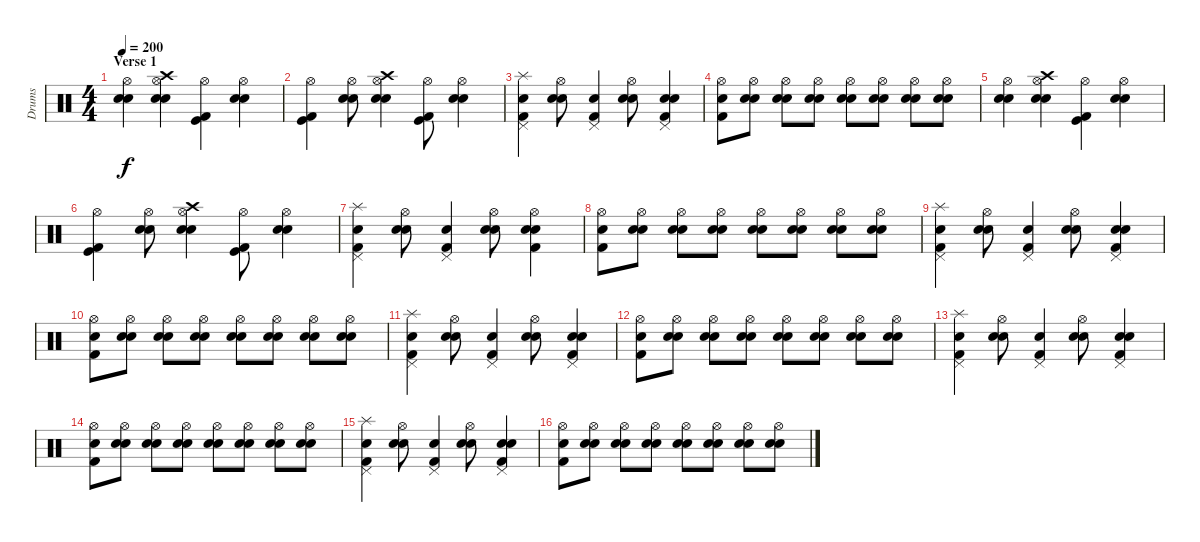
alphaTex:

\track ("Drums" "Drums") {instrument percussion}
\staff {score}
\articulation defaults
\ts (4 4)
\section ("" "Verse 1")
\tempo 200
\clef neutral
\ks c
("Hi-Hat (open)" "Snare (hit) 2" "Electric Snare (hit)").4{dy f} ("Hi-Hat (open)" "Crash high (hit)" "Snare (hit) 2" "Electric Snare (hit)").4 ("Hi-Hat (open)" "Kick (hit)" "Kick (hit) 2").4 ("Hi-Hat (open)" "Snare (hit) 2" "Electric Snare (hit)").4 |
("Hi-Hat (open)" "Kick (hit)" "Kick (hit) 2").4 ("Hi-Hat (open)" "Snare (hit) 2" "Electric Snare (hit)").8 ("Hi-Hat (open)" "Crash high (hit)" "Snare (hit) 2" "Electric Snare (hit)").4 ("Hi-Hat (open)" "Kick (hit)" "Kick (hit) 2").8 ("Hi-Hat (open)" "Snare (hit) 2" "Electric Snare (hit)").4 |
("Pedal Hi-Hat (hit)" "Splash (hit)" "Snare (hit) 2" "Kick (hit) 2").4 ("Hi-Hat (open)" "Snare (hit) 2" "Electric Snare (hit)").8 ("Pedal Hi-Hat (hit)" "Snare (hit) 2" "Kick (hit) 2").4 ("Hi-Hat (open)" "Snare (hit) 2" "Electric Snare (hit)").8 ("Pedal Hi-Hat (hit)" "Snare (hit) 2" "Electric Snare (hit)" "Kick (hit) 2").4 |
("Hi-Hat (open)" "Snare (hit) 2" "Kick (hit) 2").8 ("Hi-Hat (open)" "Snare (hit) 2" "Electric Snare (hit)").8 ("Hi-Hat (open)" "Snare (hit) 2" "Electric Snare (hit)").8 ("Hi-Hat (open)" "Snare (hit) 2" "Electric Snare (hit)").8 ("Hi-Hat (open)" "Snare (hit) 2" "Electric Snare (hit)").8 ("Hi-Hat (open)" "Snare (hit) 2" "Electric Snare (hit)").8 ("Hi-Hat (open)" "Snare (hit) 2" "Electric Snare (hit)").8 ("Hi-Hat (open)" "Snare (hit) 2" "Electric Snare (hit)").8 |
("Hi-Hat (open)" "Snare (hit) 2" "Electric Snare (hit)").4 ("Hi-Hat (open)" "Crash high (hit)" "Snare (hit) 2" "Electric Snare (hit)").4 ("Hi-Hat (open)" "Kick (hit)" "Kick (hit) 2").4 ("Hi-Hat (open)" "Snare (hit) 2" "Electric Snare (hit)").4 |
("Hi-Hat (open)" "Kick (hit)" "Kick (hit) 2").4 ("Hi-Hat (open)" "Snare (hit) 2" "Electric Snare (hit)").8 ("Hi-Hat (open)" "Crash high (hit)" "Snare (hit) 2" "Electric Snare (hit)").4 ("Hi-Hat (open)" "Kick (hit)" "Kick (hit) 2").8 ("Hi-Hat (open)" "Snare (hit) 2" "Electric Snare (hit)").4 |
("Pedal Hi-Hat (hit)" "Splash (hit)" "Snare (hit) 2" "Kick (hit) 2").4 ("Hi-Hat (open)" "Snare (hit) 2" "Electric Snare (hit)").8 ("Pedal Hi-Hat (hit)" "Snare (hit) 2" "Kick (hit) 2").4 ("Hi-Hat (open)" "Snare (hit) 2" "Electric Snare (hit)").8 ("Hi-Hat (open)" "Snare (hit) 2" "Electric Snare (hit)" "Kick (hit) 2").4 |
("Hi-Hat (open)" "Snare (hit) 2" "Kick (hit) 2").8 ("Hi-Hat (open)" "Snare (hit) 2" "Electric Snare (hit)").8 ("Hi-Hat (open)" "Snare (hit) 2" "Electric Snare (hit)").8 ("Hi-Hat (open)" "Snare (hit) 2" "Electric Snare (hit)").8 ("Hi-Hat (open)" "Snare (hit) 2" "Electric Snare (hit)").8 ("Hi-Hat (open)" "Snare (hit) 2" "Electric Snare (hit)").8 ("Hi-Hat (open)" "Snare (hit) 2" "Electric Snare (hit)").8 ("Hi-Hat (open)" "Snare (hit) 2" "Electric Snare (hit)").8 |
("Pedal Hi-Hat (hit)" "Splash (hit)" "Snare (hit) 2" "Kick (hit) 2").4 ("Hi-Hat (open)" "Snare (hit) 2" "Electric Snare (hit)").8 ("Pedal Hi-Hat (hit)" "Snare (hit) 2" "Kick (hit) 2").4 ("Hi-Hat (open)" "Snare (hit) 2" "Electric Snare (hit)").8 ("Pedal Hi-Hat (hit)" "Snare (hit) 2" "Electric Snare (hit)" "Kick (hit) 2").4 |
("Hi-Hat (open)" "Snare (hit) 2" "Kick (hit) 2").8 ("Hi-Hat (open)" "Snare (hit) 2" "Electric Snare (hit)").8 ("Hi-Hat (open)" "Snare (hit) 2" "Electric Snare (hit)").8 ("Hi-Hat (open)" "Snare (hit) 2" "Electric Snare (hit)").8 ("Hi-Hat (open)" "Snare (hit) 2" "Electric Snare (hit)").8 ("Hi-Hat (open)" "Snare (hit) 2" "Electric Snare (hit)").8 ("Hi-Hat (open)" "Snare (hit) 2" "Electric Snare (hit)").8 ("Hi-Hat (open)" "Snare (hit) 2" "Electric Snare (hit)").8 |
("Pedal Hi-Hat (hit)" "Splash (hit)" "Snare (hit) 2" "Kick (hit) 2").4 ("Hi-Hat (open)" "Snare (hit) 2" "Electric Snare (hit)").8 ("Pedal Hi-Hat (hit)" "Snare (hit) 2" "Kick (hit) 2").4 ("Hi-Hat (open)" "Snare (hit) 2" "Electric Snare (hit)").8 ("Pedal Hi-Hat (hit)" "Snare (hit) 2" "Electric Snare (hit)" "Kick (hit) 2").4 |
("Hi-Hat (open)" "Snare (hit) 2" "Kick (hit) 2").8 ("Hi-Hat (open)" "Snare (hit) 2" "Electric Snare (hit)").8 ("Hi-Hat (open)" "Snare (hit) 2" "Electric Snare (hit)").8 ("Hi-Hat (open)" "Snare (hit) 2" "Electric Snare (hit)").8 ("Hi-Hat (open)" "Snare (hit) 2" "Electric Snare (hit)").8 ("Hi-Hat (open)" "Snare (hit) 2" "Electric Snare (hit)").8 ("Hi-Hat (open)" "Snare (hit) 2" "Electric Snare (hit)").8 ("Hi-Hat (open)" "Snare (hit) 2" "Electric Snare (hit)").8 |
("Pedal Hi-Hat (hit)" "Splash (hit)" "Snare (hit) 2" "Kick (hit) 2").4 ("Hi-Hat (open)" "Snare (hit) 2" "Electric Snare (hit)").8 ("Pedal Hi-Hat (hit)" "Snare (hit) 2" "Kick (hit) 2").4 ("Hi-Hat (open)" "Snare (hit) 2" "Electric Snare (hit)").8 ("Pedal Hi-Hat (hit)" "Snare (hit) 2" "Electric Snare (hit)" "Kick (hit) 2").4 |
("Hi-Hat (open)" "Snare (hit) 2" "Kick (hit) 2").8 ("Hi-Hat (open)" "Snare (hit) 2" "Electric Snare (hit)").8 ("Hi-Hat (open)" "Snare (hit) 2" "Electric Snare (hit)").8 ("Hi-Hat (open)" "Snare (hit) 2" "Electric Snare (hit)").8 ("Hi-Hat (open)" "Snare (hit) 2" "Electric Snare (hit)").8 ("Hi-Hat (open)" "Snare (hit) 2" "Electric Snare (hit)").8 ("Hi-Hat (open)" "Snare (hit) 2" "Electric Snare (hit)").8 ("Hi-Hat (open)" "Snare (hit) 2" "Electric Snare (hit)").8 |
("Pedal Hi-Hat (hit)" "Splash (hit)" "Snare (hit) 2" "Kick (hit) 2").4 ("Hi-Hat (open)" "Snare (hit) 2" "Electric Snare (hit)").8 ("Pedal Hi-Hat (hit)" "Snare (hit) 2" "Kick (hit) 2").4 ("Hi-Hat (open)" "Snare (hit) 2" "Electric Snare (hit)").8 ("Pedal Hi-Hat (hit)" "Snare (hit) 2" "Electric Snare (hit)" "Kick (hit) 2").4 |
("Hi-Hat (open)" "Snare (hit) 2" "Kick (hit) 2").8 ("Hi-Hat (open)" "Snare (hit) 2" "Electric Snare (hit)").8 ("Hi-Hat (open)" "Snare (hit) 2" "Electric Snare (hit)").8 ("Hi-Hat (open)" "Snare (hit) 2" "Electric Snare (hit)").8 ("Hi-Hat (open)" "Snare (hit) 2" "Electric Snare (hit)").8 ("Hi-Hat (open)" "Snare (hit) 2" "Electric Snare (hit)").8 ("Hi-Hat (open)" "Snare (hit) 2" "Electric Snare (hit)").8 ("Hi-Hat (open)" "Snare (hit) 2" "Electric Snare (hit)").8
